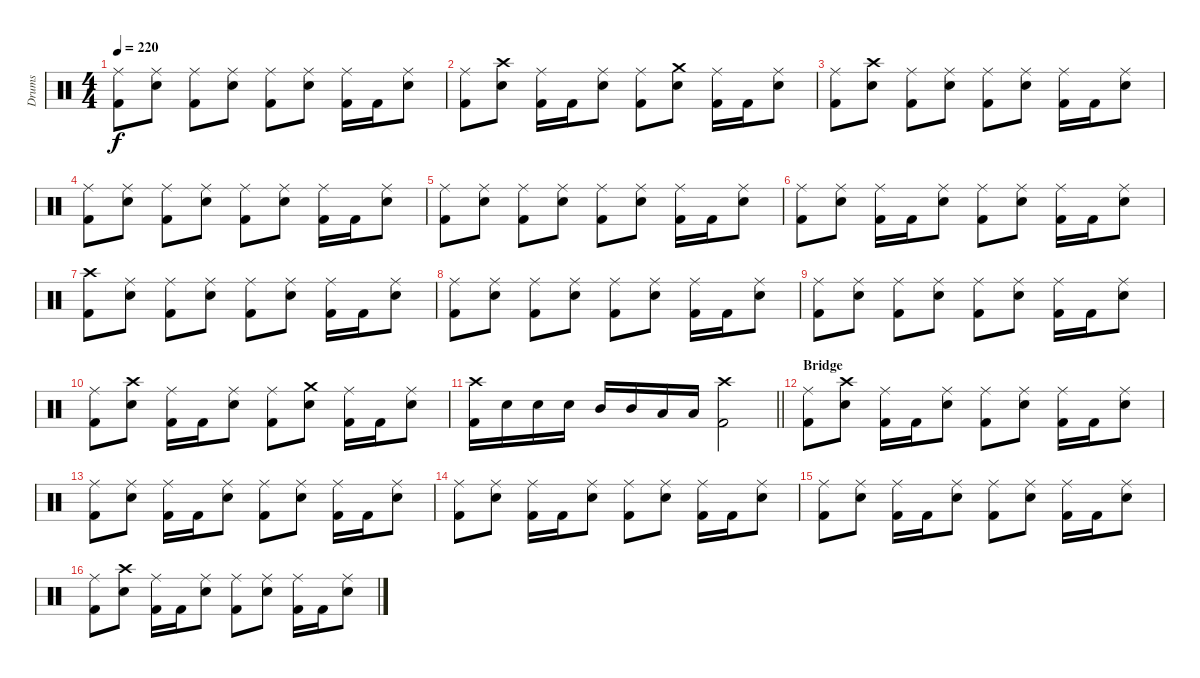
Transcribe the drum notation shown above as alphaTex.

\track ("Drums" "Drums") {instrument percussion}
\staff {score}
\articulation defaults
\ts (4 4)
\tempo 220
\clef neutral
\ks c
("Ride (middle)" "Kick (hit) 2").8{dy f} ("Ride (middle)" "Snare (hit) 2").8 ("Ride (middle)" "Kick (hit) 2").8 ("Ride (middle)" "Snare (hit) 2").8 ("Ride (middle)" "Kick (hit) 2").8 ("Ride (middle)" "Snare (hit) 2").8 ("Ride (middle)" "Kick (hit) 2").16 "Kick (hit) 2".16 ("Ride (middle)" "Snare (hit) 2").8 |
("Ride (middle)" "Kick (hit) 2").8 ("Crash high (hit)" "Snare (hit) 2").8 ("Ride (middle)" "Kick (hit) 2").16 "Kick (hit) 2".16 ("Ride (middle)" "Snare (hit) 2").8 ("Ride (middle)" "Kick (hit) 2").8 ("Crash medium (hit)" "Snare (hit) 2").8 ("Ride (middle)" "Kick (hit) 2").16 "Kick (hit) 2".16 ("Ride (middle)" "Snare (hit) 2").8 |
("Ride (middle)" "Kick (hit) 2").8 ("Crash high (hit)" "Snare (hit) 2").8 ("Ride (middle)" "Kick (hit) 2").8 ("Ride (middle)" "Snare (hit) 2").8 ("Ride (middle)" "Kick (hit) 2").8 ("Ride (middle)" "Snare (hit) 2").8 ("Ride (middle)" "Kick (hit) 2").16 "Kick (hit) 2".16 ("Ride (middle)" "Snare (hit) 2").8 |
("Ride (middle)" "Kick (hit) 2").8 ("Ride (middle)" "Snare (hit) 2").8 ("Ride (middle)" "Kick (hit) 2").8 ("Ride (middle)" "Snare (hit) 2").8 ("Ride (middle)" "Kick (hit) 2").8 ("Ride (middle)" "Snare (hit) 2").8 ("Ride (middle)" "Kick (hit) 2").16 "Kick (hit) 2".16 ("Ride (middle)" "Snare (hit) 2").8 |
("Ride (middle)" "Kick (hit) 2").8 ("Ride (middle)" "Snare (hit) 2").8 ("Ride (middle)" "Kick (hit) 2").8 ("Ride (middle)" "Snare (hit) 2").8 ("Ride (middle)" "Kick (hit) 2").8 ("Ride (middle)" "Snare (hit) 2").8 ("Ride (middle)" "Kick (hit) 2").16 "Kick (hit) 2".16 ("Ride (middle)" "Snare (hit) 2").8 |
("Ride (middle)" "Kick (hit) 2").8 ("Ride (middle)" "Snare (hit) 2").8 ("Ride (middle)" "Kick (hit) 2").16 "Kick (hit) 2".16 ("Ride (middle)" "Snare (hit) 2").8 ("Ride (middle)" "Kick (hit) 2").8 ("Ride (middle)" "Snare (hit) 2").8 ("Ride (middle)" "Kick (hit) 2").16 "Kick (hit) 2".16 ("Ride (middle)" "Snare (hit) 2").8 |
("Crash high (hit)" "Kick (hit) 2").8 ("Ride (middle)" "Snare (hit) 2").8 ("Ride (middle)" "Kick (hit) 2").8 ("Ride (middle)" "Snare (hit) 2").8 ("Ride (middle)" "Kick (hit) 2").8 ("Ride (middle)" "Snare (hit) 2").8 ("Ride (middle)" "Kick (hit) 2").16 "Kick (hit) 2".16 ("Ride (middle)" "Snare (hit) 2").8 |
("Ride (middle)" "Kick (hit) 2").8 ("Ride (middle)" "Snare (hit) 2").8 ("Ride (middle)" "Kick (hit) 2").8 ("Ride (middle)" "Snare (hit) 2").8 ("Ride (middle)" "Kick (hit) 2").8 ("Ride (middle)" "Snare (hit) 2").8 ("Ride (middle)" "Kick (hit) 2").16 "Kick (hit) 2".16 ("Ride (middle)" "Snare (hit) 2").8 |
("Ride (middle)" "Kick (hit) 2").8 ("Ride (middle)" "Snare (hit) 2").8 ("Ride (middle)" "Kick (hit) 2").8 ("Ride (middle)" "Snare (hit) 2").8 ("Ride (middle)" "Kick (hit) 2").8 ("Ride (middle)" "Snare (hit) 2").8 ("Ride (middle)" "Kick (hit) 2").16 "Kick (hit) 2".16 ("Ride (middle)" "Snare (hit) 2").8 |
("Ride (middle)" "Kick (hit) 2").8 ("Crash high (hit)" "Snare (hit) 2").8 ("Ride (middle)" "Kick (hit) 2").16 "Kick (hit) 2".16 ("Ride (middle)" "Snare (hit) 2").8 ("Ride (middle)" "Kick (hit) 2").8 ("Crash medium (hit)" "Snare (hit) 2").8 ("Ride (middle)" "Kick (hit) 2").16 "Kick (hit) 2".16 ("Ride (middle)" "Snare (hit) 2").8 |
\barLineRight lightlight
("Crash high (hit)" "Kick (hit) 2").16 "Snare (hit) 2".16 "Snare (hit) 2".16 "Snare (hit) 2".16 "Mid Tom (hit)".16 "Mid Tom (hit)".16 "Low Tom (hit)".16 "Low Tom (hit)".16 ("Crash high (hit)" "Kick (hit) 2").2 |
\section ("" "Bridge")
("Ride (middle)" "Kick (hit) 2").8 ("Crash high (hit)" "Snare (hit) 2").8 ("Ride (middle)" "Kick (hit) 2").16 "Kick (hit) 2".16 ("Ride (middle)" "Snare (hit) 2").8 ("Ride (middle)" "Kick (hit) 2").8 ("Ride (middle)" "Snare (hit) 2").8 ("Ride (middle)" "Kick (hit) 2").16 "Kick (hit) 2".16 ("Ride (middle)" "Snare (hit) 2").8 |
("Ride (middle)" "Kick (hit) 2").8 ("Ride (middle)" "Snare (hit) 2").8 ("Ride (middle)" "Kick (hit) 2").16 "Kick (hit) 2".16 ("Ride (middle)" "Snare (hit) 2").8 ("Ride (middle)" "Kick (hit) 2").8 ("Ride (middle)" "Snare (hit) 2").8 ("Ride (middle)" "Kick (hit) 2").16 "Kick (hit) 2".16 ("Ride (middle)" "Snare (hit) 2").8 |
("Ride (middle)" "Kick (hit) 2").8 ("Ride (middle)" "Snare (hit) 2").8 ("Ride (middle)" "Kick (hit) 2").16 "Kick (hit) 2".16 ("Ride (middle)" "Snare (hit) 2").8 ("Ride (middle)" "Kick (hit) 2").8 ("Ride (middle)" "Snare (hit) 2").8 ("Ride (middle)" "Kick (hit) 2").16 "Kick (hit) 2".16 ("Ride (middle)" "Snare (hit) 2").8 |
("Ride (middle)" "Kick (hit) 2").8 ("Ride (middle)" "Snare (hit) 2").8 ("Ride (middle)" "Kick (hit) 2").16 "Kick (hit) 2".16 ("Ride (middle)" "Snare (hit) 2").8 ("Ride (middle)" "Kick (hit) 2").8 ("Ride (middle)" "Snare (hit) 2").8 ("Ride (middle)" "Kick (hit) 2").16 "Kick (hit) 2".16 ("Ride (middle)" "Snare (hit) 2").8 |
("Ride (middle)" "Kick (hit) 2").8 ("Crash high (hit)" "Snare (hit) 2").8 ("Ride (middle)" "Kick (hit) 2").16 "Kick (hit) 2".16 ("Ride (middle)" "Snare (hit) 2").8 ("Ride (middle)" "Kick (hit) 2").8 ("Ride (middle)" "Snare (hit) 2").8 ("Ride (middle)" "Kick (hit) 2").16 "Kick (hit) 2".16 ("Ride (middle)" "Snare (hit) 2").8
